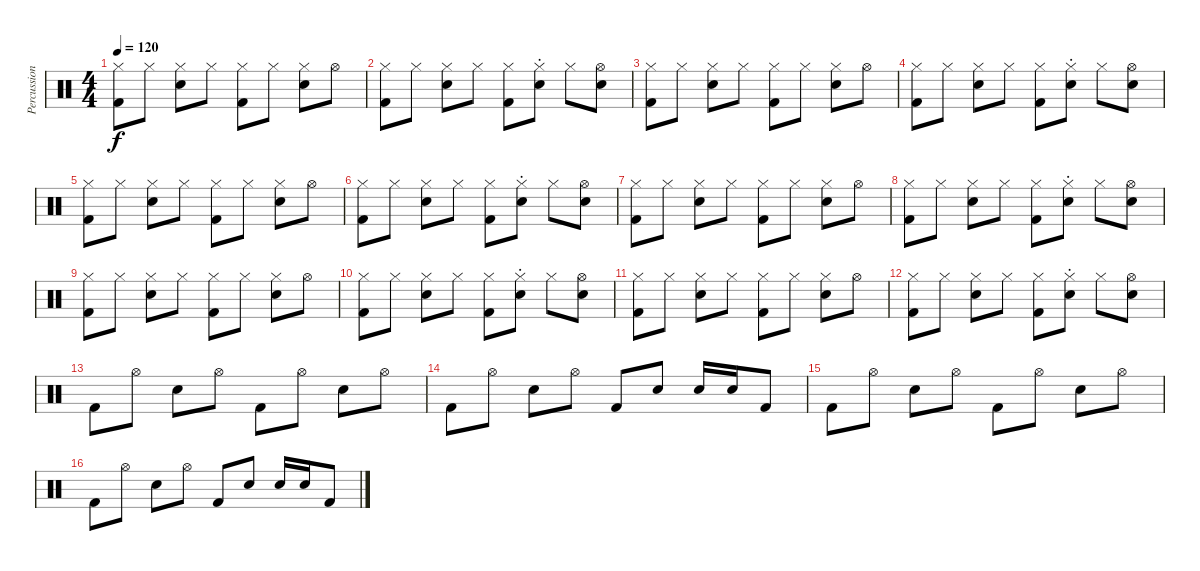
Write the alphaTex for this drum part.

\track ("Percussion" "Percussion") {instrument percussion}
\staff {score}
\articulation defaults
\ts (4 4)
\tempo 120
\clef neutral
\ks c
("Hi-Hat (closed)" "Kick (hit) 2").8{dy f} "Hi-Hat (closed)".8 ("Hi-Hat (closed)" "Snare (hit) 2").8 "Hi-Hat (closed)".8 ("Hi-Hat (closed)" "Kick (hit) 2").8 "Hi-Hat (closed)".8 ("Hi-Hat (closed)" "Snare (hit) 2").8 "Hi-Hat (open)".8 |
("Hi-Hat (closed)" "Kick (hit) 2").8 "Hi-Hat (closed)".8 ("Hi-Hat (closed)" "Snare (hit) 2").8 "Hi-Hat (closed)".8 ("Hi-Hat (closed)" "Kick (hit) 2").8 ("Hi-Hat (closed)"{st} "Snare (hit) 2"{st}).8 "Hi-Hat (closed)".8 ("Hi-Hat (open)" "Snare (hit) 2").8 |
("Hi-Hat (closed)" "Kick (hit) 2").8 "Hi-Hat (closed)".8 ("Hi-Hat (closed)" "Snare (hit) 2").8 "Hi-Hat (closed)".8 ("Hi-Hat (closed)" "Kick (hit) 2").8 "Hi-Hat (closed)".8 ("Hi-Hat (closed)" "Snare (hit) 2").8 "Hi-Hat (open)".8 |
("Hi-Hat (closed)" "Kick (hit) 2").8 "Hi-Hat (closed)".8 ("Hi-Hat (closed)" "Snare (hit) 2").8 "Hi-Hat (closed)".8 ("Hi-Hat (closed)" "Kick (hit) 2").8 ("Hi-Hat (closed)"{st} "Snare (hit) 2"{st}).8 "Hi-Hat (closed)".8 ("Hi-Hat (open)" "Snare (hit) 2").8 |
("Hi-Hat (closed)" "Kick (hit) 2").8 "Hi-Hat (closed)".8 ("Hi-Hat (closed)" "Snare (hit) 2").8 "Hi-Hat (closed)".8 ("Hi-Hat (closed)" "Kick (hit) 2").8 "Hi-Hat (closed)".8 ("Hi-Hat (closed)" "Snare (hit) 2").8 "Hi-Hat (open)".8 |
("Hi-Hat (closed)" "Kick (hit) 2").8 "Hi-Hat (closed)".8 ("Hi-Hat (closed)" "Snare (hit) 2").8 "Hi-Hat (closed)".8 ("Hi-Hat (closed)" "Kick (hit) 2").8 ("Hi-Hat (closed)"{st} "Snare (hit) 2"{st}).8 "Hi-Hat (closed)".8 ("Hi-Hat (open)" "Snare (hit) 2").8 |
("Hi-Hat (closed)" "Kick (hit) 2").8 "Hi-Hat (closed)".8 ("Hi-Hat (closed)" "Snare (hit) 2").8 "Hi-Hat (closed)".8 ("Hi-Hat (closed)" "Kick (hit) 2").8 "Hi-Hat (closed)".8 ("Hi-Hat (closed)" "Snare (hit) 2").8 "Hi-Hat (open)".8 |
("Hi-Hat (closed)" "Kick (hit) 2").8 "Hi-Hat (closed)".8 ("Hi-Hat (closed)" "Snare (hit) 2").8 "Hi-Hat (closed)".8 ("Hi-Hat (closed)" "Kick (hit) 2").8 ("Hi-Hat (closed)"{st} "Snare (hit) 2"{st}).8 "Hi-Hat (closed)".8 ("Hi-Hat (open)" "Snare (hit) 2").8 |
("Hi-Hat (closed)" "Kick (hit) 2").8 "Hi-Hat (closed)".8 ("Hi-Hat (closed)" "Snare (hit) 2").8 "Hi-Hat (closed)".8 ("Hi-Hat (closed)" "Kick (hit) 2").8 "Hi-Hat (closed)".8 ("Hi-Hat (closed)" "Snare (hit) 2").8 "Hi-Hat (open)".8 |
("Hi-Hat (closed)" "Kick (hit) 2").8 "Hi-Hat (closed)".8 ("Hi-Hat (closed)" "Snare (hit) 2").8 "Hi-Hat (closed)".8 ("Hi-Hat (closed)" "Kick (hit) 2").8 ("Hi-Hat (closed)"{st} "Snare (hit) 2"{st}).8 "Hi-Hat (closed)".8 ("Hi-Hat (open)" "Snare (hit) 2").8 |
("Hi-Hat (closed)" "Kick (hit) 2").8 "Hi-Hat (closed)".8 ("Hi-Hat (closed)" "Snare (hit) 2").8 "Hi-Hat (closed)".8 ("Hi-Hat (closed)" "Kick (hit) 2").8 "Hi-Hat (closed)".8 ("Hi-Hat (closed)" "Snare (hit) 2").8 "Hi-Hat (open)".8 |
("Hi-Hat (closed)" "Kick (hit) 2").8 "Hi-Hat (closed)".8 ("Hi-Hat (closed)" "Snare (hit) 2").8 "Hi-Hat (closed)".8 ("Hi-Hat (closed)" "Kick (hit) 2").8 ("Hi-Hat (closed)"{st} "Snare (hit) 2"{st}).8 "Hi-Hat (closed)".8 ("Hi-Hat (open)" "Snare (hit) 2").8 |
"Kick (hit) 2".8 "Hi-Hat (open)".8 "Snare (hit) 2".8 "Hi-Hat (open)".8 "Kick (hit) 2".8 "Hi-Hat (open)".8 "Snare (hit) 2".8 "Hi-Hat (open)".8 |
"Kick (hit) 2".8 "Hi-Hat (open)".8 "Snare (hit) 2".8 "Hi-Hat (open)".8 "Kick (hit) 2".8 "Snare (hit) 2".8 "Snare (hit) 2".16 "Snare (hit) 2".16 "Kick (hit) 2".8 |
"Kick (hit) 2".8 "Hi-Hat (open)".8 "Snare (hit) 2".8 "Hi-Hat (open)".8 "Kick (hit) 2".8 "Hi-Hat (open)".8 "Snare (hit) 2".8 "Hi-Hat (open)".8 |
"Kick (hit) 2".8 "Hi-Hat (open)".8 "Snare (hit) 2".8 "Hi-Hat (open)".8 "Kick (hit) 2".8 "Snare (hit) 2".8 "Snare (hit) 2".16 "Snare (hit) 2".16 "Kick (hit) 2".8
